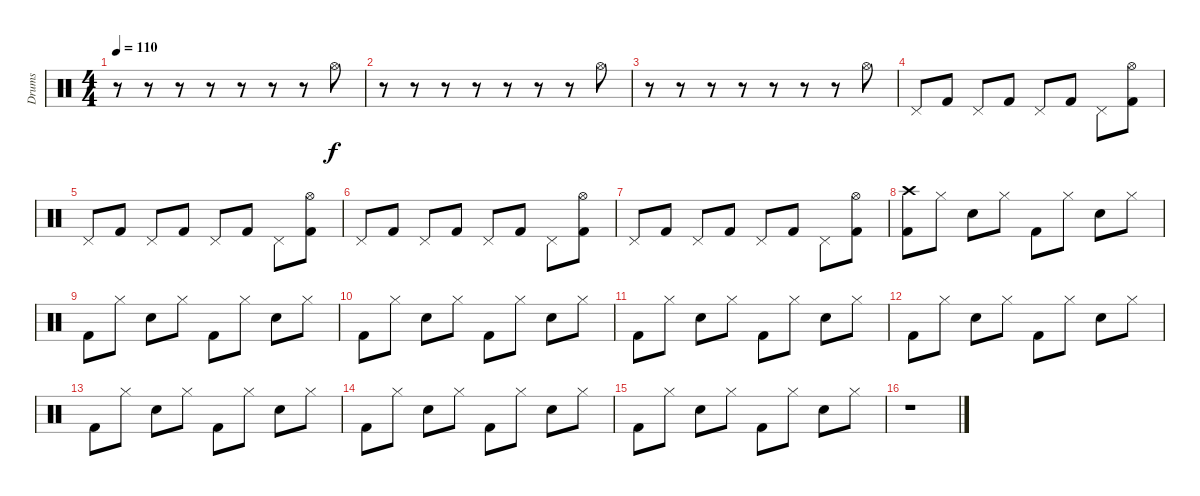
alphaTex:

\track ("Drums" "Drums") {instrument percussion}
\staff {score}
\articulation defaults
\ts (4 4)
\tempo 110
\clef neutral
\ks c
r.8{dy f} r.8 r.8 r.8 r.8 r.8 r.8 "Hi-Hat (open)".8 |
r.8 r.8 r.8 r.8 r.8 r.8 r.8 "Hi-Hat (open)".8 |
r.8 r.8 r.8 r.8 r.8 r.8 r.8 "Hi-Hat (open)".8 |
"Pedal Hi-Hat (hit)".8 "Kick (hit) 2".8 "Pedal Hi-Hat (hit)".8 "Kick (hit) 2".8 "Pedal Hi-Hat (hit)".8 "Kick (hit) 2".8 "Pedal Hi-Hat (hit)".8 ("Kick (hit) 2" "Hi-Hat (open)").8 |
"Pedal Hi-Hat (hit)".8 "Kick (hit) 2".8 "Pedal Hi-Hat (hit)".8 "Kick (hit) 2".8 "Pedal Hi-Hat (hit)".8 "Kick (hit) 2".8 "Pedal Hi-Hat (hit)".8 ("Kick (hit) 2" "Hi-Hat (open)").8 |
"Pedal Hi-Hat (hit)".8 "Kick (hit) 2".8 "Pedal Hi-Hat (hit)".8 "Kick (hit) 2".8 "Pedal Hi-Hat (hit)".8 "Kick (hit) 2".8 "Pedal Hi-Hat (hit)".8 ("Kick (hit) 2" "Hi-Hat (open)").8 |
"Pedal Hi-Hat (hit)".8 "Kick (hit) 2".8 "Pedal Hi-Hat (hit)".8 "Kick (hit) 2".8 "Pedal Hi-Hat (hit)".8 "Kick (hit) 2".8 "Pedal Hi-Hat (hit)".8 ("Kick (hit) 2" "Hi-Hat (open)").8 |
("Kick (hit) 2" "Crash high (hit)").8 "Hi-Hat (closed)".8 "Snare (hit) 2".8 "Hi-Hat (closed)".8 "Kick (hit) 2".8 "Hi-Hat (closed)".8 "Snare (hit) 2".8 "Hi-Hat (closed)".8 |
"Kick (hit) 2".8 "Hi-Hat (closed)".8 "Snare (hit) 2".8 "Hi-Hat (closed)".8 "Kick (hit) 2".8 "Hi-Hat (closed)".8 "Snare (hit) 2".8 "Hi-Hat (closed)".8 |
"Kick (hit) 2".8 "Hi-Hat (closed)".8 "Snare (hit) 2".8 "Hi-Hat (closed)".8 "Kick (hit) 2".8 "Hi-Hat (closed)".8 "Snare (hit) 2".8 "Hi-Hat (closed)".8 |
"Kick (hit) 2".8 "Hi-Hat (closed)".8 "Snare (hit) 2".8 "Hi-Hat (closed)".8 "Kick (hit) 2".8 "Hi-Hat (closed)".8 "Snare (hit) 2".8 "Hi-Hat (closed)".8 |
"Kick (hit) 2".8 "Hi-Hat (closed)".8 "Snare (hit) 2".8 "Hi-Hat (closed)".8 "Kick (hit) 2".8 "Hi-Hat (closed)".8 "Snare (hit) 2".8 "Hi-Hat (closed)".8 |
"Kick (hit) 2".8 "Hi-Hat (closed)".8 "Snare (hit) 2".8 "Hi-Hat (closed)".8 "Kick (hit) 2".8 "Hi-Hat (closed)".8 "Snare (hit) 2".8 "Hi-Hat (closed)".8 |
"Kick (hit) 2".8 "Hi-Hat (closed)".8 "Snare (hit) 2".8 "Hi-Hat (closed)".8 "Kick (hit) 2".8 "Hi-Hat (closed)".8 "Snare (hit) 2".8 "Hi-Hat (closed)".8 |
"Kick (hit) 2".8 "Hi-Hat (closed)".8 "Snare (hit) 2".8 "Hi-Hat (closed)".8 "Kick (hit) 2".8 "Hi-Hat (closed)".8 "Snare (hit) 2".8 "Hi-Hat (closed)".8 |
r.1
